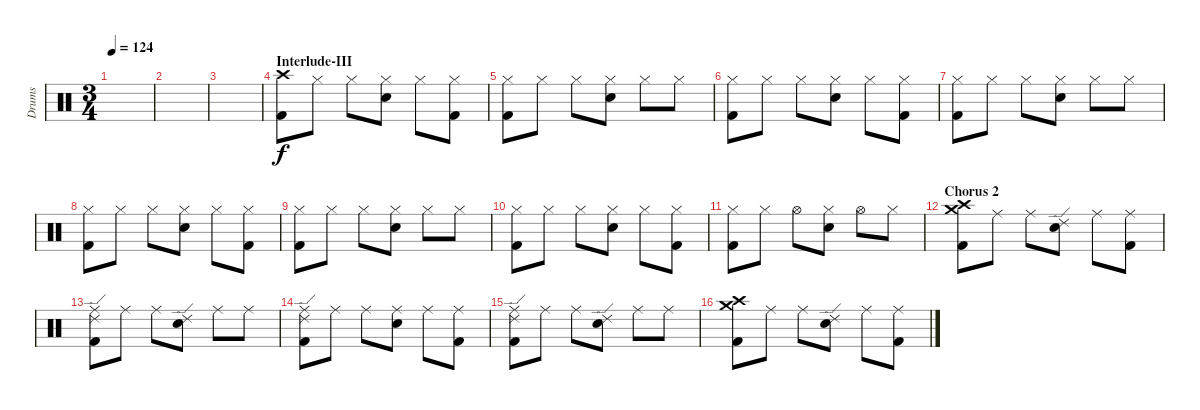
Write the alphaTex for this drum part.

\track ("Drums" "Drums") {instrument percussion}
\staff {score}
\articulation defaults
\ts (3 4)
\tempo 124
\clef neutral
\ks c
|
|
|
\section ("" "Interlude-III")
("Crash high (hit)" "Kick (hit) 2").8 "Hi-Hat (closed)".8 "Hi-Hat (closed)".8 ("Hi-Hat (closed)" "Electric Snare (hit)").8 "Hi-Hat (closed)".8 ("Hi-Hat (closed)" "Kick (hit) 2").8 |
("Hi-Hat (closed)" "Kick (hit) 2").8 "Hi-Hat (closed)".8 "Hi-Hat (closed)".8 ("Hi-Hat (closed)" "Electric Snare (hit)").8 "Hi-Hat (closed)".8 "Hi-Hat (closed)".8 |
("Hi-Hat (closed)" "Kick (hit) 2").8 "Hi-Hat (closed)".8 "Hi-Hat (closed)".8 ("Hi-Hat (closed)" "Electric Snare (hit)").8 "Hi-Hat (closed)".8 ("Hi-Hat (closed)" "Kick (hit) 2").8 |
("Hi-Hat (closed)" "Kick (hit) 2").8 "Hi-Hat (closed)".8 "Hi-Hat (closed)".8 ("Hi-Hat (closed)" "Electric Snare (hit)").8 "Hi-Hat (closed)".8 "Hi-Hat (closed)".8 |
("Hi-Hat (closed)" "Kick (hit) 2").8 "Hi-Hat (closed)".8 "Hi-Hat (closed)".8 ("Hi-Hat (closed)" "Electric Snare (hit)").8 "Hi-Hat (closed)".8 ("Hi-Hat (closed)" "Kick (hit) 2").8 |
("Hi-Hat (closed)" "Kick (hit) 2").8 "Hi-Hat (closed)".8 "Hi-Hat (closed)".8 ("Hi-Hat (closed)" "Electric Snare (hit)").8 "Hi-Hat (closed)".8 "Hi-Hat (closed)".8 |
("Hi-Hat (closed)" "Kick (hit) 2").8 "Hi-Hat (closed)".8 "Hi-Hat (closed)".8 ("Hi-Hat (closed)" "Electric Snare (hit)").8 "Hi-Hat (closed)".8 ("Hi-Hat (closed)" "Kick (hit) 2").8 |
("Hi-Hat (closed)" "Kick (hit) 2").8 "Hi-Hat (closed)".8 "Hi-Hat (open)".8 ("Hi-Hat (closed)" "Electric Snare (hit)").8 "Hi-Hat (open)".8 "Hi-Hat (closed)".8 |
\section ("" "Chorus 2")
("Crash high (hit)" "Crash medium (hit)" "Kick (hit) 2").8 "Ride (middle)".8 "Ride (middle)".8 ("Ride (edge) 2" "Electric Snare (hit)").8 "Ride (middle)".8 ("Ride (middle)" "Kick (hit) 2").8 |
("Ride (middle)" "Ride (edge) 2" "Kick (hit) 2").8 "Ride (middle)".8 "Ride (middle)".8 ("Ride (edge) 2" "Electric Snare (hit)").8 "Ride (middle)".8 "Ride (middle)".8 |
("Ride (middle)" "Ride (edge) 2" "Kick (hit) 2").8 "Ride (middle)".8 "Ride (middle)".8 ("Ride (middle)" "Electric Snare (hit)").8 "Ride (middle)".8 ("Ride (middle)" "Kick (hit) 2").8 |
("Ride (middle)" "Ride (edge) 2" "Kick (hit) 2").8 "Ride (middle)".8 "Ride (middle)".8 ("Ride (edge) 2" "Electric Snare (hit)").8 "Ride (middle)".8 "Ride (middle)".8 |
("Crash high (hit)" "Crash medium (hit)" "Kick (hit) 2").8 "Ride (middle)".8 "Ride (middle)".8 ("Ride (edge) 2" "Electric Snare (hit)").8 "Ride (middle)".8 ("Ride (middle)" "Kick (hit) 2").8
